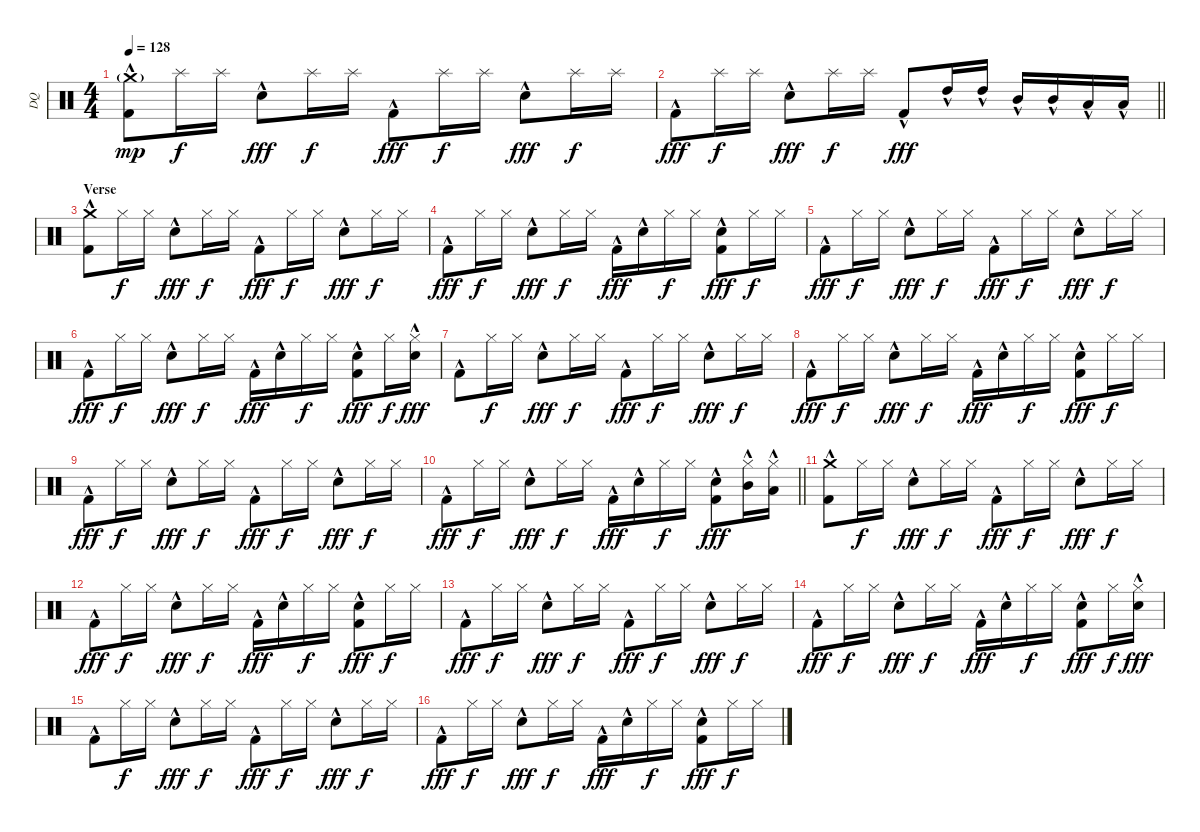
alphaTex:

\track ("DQ" "DQ") {instrument percussion}
\staff {score}
\articulation defaults
\ts (4 4)
\tempo 128
\clef neutral
\ks c
("Kick (hit) 2"{hac} "Crash medium (hit)"{g}).8{dy mp} "Splash (hit)".16{dy f} "Splash (hit)".16 "Snare (hit) 2"{hac}.8{dy fff} "Splash (hit)".16{dy f} "Splash (hit)".16 "Kick (hit) 2"{hac}.8{dy fff} "Splash (hit)".16{dy f} "Splash (hit)".16 "Snare (hit) 2"{hac}.8{dy fff} "Splash (hit)".16{dy f} "Splash (hit)".16 |
\barLineRight lightlight "Kick (hit) 2"{hac}.8{dy fff} "Splash (hit)".16{dy f} "Splash (hit)".16 "Snare (hit) 2"{hac}.8{dy fff} "Splash (hit)".16{dy f} "Splash (hit)".16 "Kick (hit) 2"{hac}.8{dy fff} "High Tom (hit)"{hac}.16 "High Tom (hit)"{hac}.16 "Mid Tom (hit)"{hac}.16 "Mid Tom (hit)"{hac}.16 "Low Tom (hit)"{hac}.16 "Low Tom (hit)"{hac}.16
|
\section ("" "Verse")
("Kick (hit) 2"{hac} "Crash medium (hit)").8 "Hi-Hat (closed)".16{dy f} "Hi-Hat (closed)".16 "Snare (hit) 2"{hac}.8{dy fff} "Hi-Hat (closed)".16{dy f} "Hi-Hat (closed)".16 "Kick (hit) 2"{hac}.8{dy fff} "Hi-Hat (closed)".16{dy f} "Hi-Hat (closed)".16 "Snare (hit) 2"{hac}.8{dy fff} "Hi-Hat (closed)".16{dy f} "Hi-Hat (closed)".16 |
"Kick (hit) 2"{hac}.8{dy fff} "Hi-Hat (closed)".16{dy f} "Hi-Hat (closed)".16 "Snare (hit) 2"{hac}.8{dy fff} "Hi-Hat (closed)".16{dy f} "Hi-Hat (closed)".16 "Kick (hit) 2"{hac}.16{dy fff} "Snare (hit) 2"{hac}.16 "Hi-Hat (closed)".16{dy f} "Hi-Hat (closed)".16 ("Kick (hit) 2"{hac} "Snare (hit) 2"{hac}).8{dy fff} "Hi-Hat (closed)".16{dy f} "Hi-Hat (closed)".16 |
"Kick (hit) 2"{hac}.8{dy fff} "Hi-Hat (closed)".16{dy f} "Hi-Hat (closed)".16 "Snare (hit) 2"{hac}.8{dy fff} "Hi-Hat (closed)".16{dy f} "Hi-Hat (closed)".16 "Kick (hit) 2"{hac}.8{dy fff} "Hi-Hat (closed)".16{dy f} "Hi-Hat (closed)".16 "Snare (hit) 2"{hac}.8{dy fff} "Hi-Hat (closed)".16{dy f} "Hi-Hat (closed)".16 |
"Kick (hit) 2"{hac}.8{dy fff} "Hi-Hat (closed)".16{dy f} "Hi-Hat (closed)".16 "Snare (hit) 2"{hac}.8{dy fff} "Hi-Hat (closed)".16{dy f} "Hi-Hat (closed)".16 "Kick (hit) 2"{hac}.16{dy fff} "Snare (hit) 2"{hac}.16 "Hi-Hat (closed)".16{dy f} "Hi-Hat (closed)".16 ("Kick (hit) 2"{hac} "Snare (hit) 2"{hac}).8{dy fff} "Hi-Hat (closed)".16{dy f} ("Snare (hit) 2"{hac} "Hi-Hat (closed)").16{dy fff} |
"Kick (hit) 2"{hac}.8 "Hi-Hat (closed)".16{dy f} "Hi-Hat (closed)".16 "Snare (hit) 2"{hac}.8{dy fff} "Hi-Hat (closed)".16{dy f} "Hi-Hat (closed)".16 "Kick (hit) 2"{hac}.8{dy fff} "Hi-Hat (closed)".16{dy f} "Hi-Hat (closed)".16 "Snare (hit) 2"{hac}.8{dy fff} "Hi-Hat (closed)".16{dy f} "Hi-Hat (closed)".16 |
"Kick (hit) 2"{hac}.8{dy fff} "Hi-Hat (closed)".16{dy f} "Hi-Hat (closed)".16 "Snare (hit) 2"{hac}.8{dy fff} "Hi-Hat (closed)".16{dy f} "Hi-Hat (closed)".16 "Kick (hit) 2"{hac}.16{dy fff} "Snare (hit) 2"{hac}.16 "Hi-Hat (closed)".16{dy f} "Hi-Hat (closed)".16 ("Kick (hit) 2"{hac} "Snare (hit) 2"{hac}).8{dy fff} "Hi-Hat (closed)".16{dy f} "Hi-Hat (closed)".16 |
"Kick (hit) 2"{hac}.8{dy fff} "Hi-Hat (closed)".16{dy f} "Hi-Hat (closed)".16 "Snare (hit) 2"{hac}.8{dy fff} "Hi-Hat (closed)".16{dy f} "Hi-Hat (closed)".16 "Kick (hit) 2"{hac}.8{dy fff} "Hi-Hat (closed)".16{dy f} "Hi-Hat (closed)".16 "Snare (hit) 2"{hac}.8{dy fff} "Hi-Hat (closed)".16{dy f} "Hi-Hat (closed)".16 |
\barLineRight lightlight "Kick (hit) 2"{hac}.8{dy fff} "Hi-Hat (closed)".16{dy f} "Hi-Hat (closed)".16 "Snare (hit) 2"{hac}.8{dy fff} "Hi-Hat (closed)".16{dy f} "Hi-Hat (closed)".16 "Kick (hit) 2"{hac}.16{dy fff} "Snare (hit) 2"{hac}.16 "Hi-Hat (closed)".16{dy f} "Hi-Hat (closed)".16
("Kick (hit) 2"{hac} "Snare (hit) 2"{hac}).8{dy fff} ("Mid Tom (hit)"{hac} "Hi-Hat (closed)").16 ("Low Tom (hit)"{hac} "Hi-Hat (closed)").16 |
\section ("" "")
("Kick (hit) 2"{hac} "Crash medium (hit)").8 "Hi-Hat (closed)".16{dy f} "Hi-Hat (closed)".16 "Snare (hit) 2"{hac}.8{dy fff} "Hi-Hat (closed)".16{dy f} "Hi-Hat (closed)".16 "Kick (hit) 2"{hac}.8{dy fff} "Hi-Hat (closed)".16{dy f} "Hi-Hat (closed)".16 "Snare (hit) 2"{hac}.8{dy fff} "Hi-Hat (closed)".16{dy f} "Hi-Hat (closed)".16 |
"Kick (hit) 2"{hac}.8{dy fff} "Hi-Hat (closed)".16{dy f} "Hi-Hat (closed)".16 "Snare (hit) 2"{hac}.8{dy fff} "Hi-Hat (closed)".16{dy f} "Hi-Hat (closed)".16 "Kick (hit) 2"{hac}.16{dy fff} "Snare (hit) 2"{hac}.16 "Hi-Hat (closed)".16{dy f} "Hi-Hat (closed)".16 ("Kick (hit) 2"{hac} "Snare (hit) 2"{hac}).8{dy fff} "Hi-Hat (closed)".16{dy f} "Hi-Hat (closed)".16 |
"Kick (hit) 2"{hac}.8{dy fff} "Hi-Hat (closed)".16{dy f} "Hi-Hat (closed)".16 "Snare (hit) 2"{hac}.8{dy fff} "Hi-Hat (closed)".16{dy f} "Hi-Hat (closed)".16 "Kick (hit) 2"{hac}.8{dy fff} "Hi-Hat (closed)".16{dy f} "Hi-Hat (closed)".16 "Snare (hit) 2"{hac}.8{dy fff} "Hi-Hat (closed)".16{dy f} "Hi-Hat (closed)".16 |
"Kick (hit) 2"{hac}.8{dy fff} "Hi-Hat (closed)".16{dy f} "Hi-Hat (closed)".16 "Snare (hit) 2"{hac}.8{dy fff} "Hi-Hat (closed)".16{dy f} "Hi-Hat (closed)".16 "Kick (hit) 2"{hac}.16{dy fff} "Snare (hit) 2"{hac}.16 "Hi-Hat (closed)".16{dy f} "Hi-Hat (closed)".16 ("Kick (hit) 2"{hac} "Snare (hit) 2"{hac}).8{dy fff} "Hi-Hat (closed)".16{dy f} ("Snare (hit) 2"{hac} "Hi-Hat (closed)").16{dy fff} |
"Kick (hit) 2"{hac}.8 "Hi-Hat (closed)".16{dy f} "Hi-Hat (closed)".16 "Snare (hit) 2"{hac}.8{dy fff} "Hi-Hat (closed)".16{dy f} "Hi-Hat (closed)".16 "Kick (hit) 2"{hac}.8{dy fff} "Hi-Hat (closed)".16{dy f} "Hi-Hat (closed)".16 "Snare (hit) 2"{hac}.8{dy fff} "Hi-Hat (closed)".16{dy f} "Hi-Hat (closed)".16 |
"Kick (hit) 2"{hac}.8{dy fff} "Hi-Hat (closed)".16{dy f} "Hi-Hat (closed)".16 "Snare (hit) 2"{hac}.8{dy fff} "Hi-Hat (closed)".16{dy f} "Hi-Hat (closed)".16 "Kick (hit) 2"{hac}.16{dy fff} "Snare (hit) 2"{hac}.16 "Hi-Hat (closed)".16{dy f} "Hi-Hat (closed)".16 ("Kick (hit) 2"{hac} "Snare (hit) 2"{hac}).8{dy fff} "Hi-Hat (closed)".16{dy f} "Hi-Hat (closed)".16
